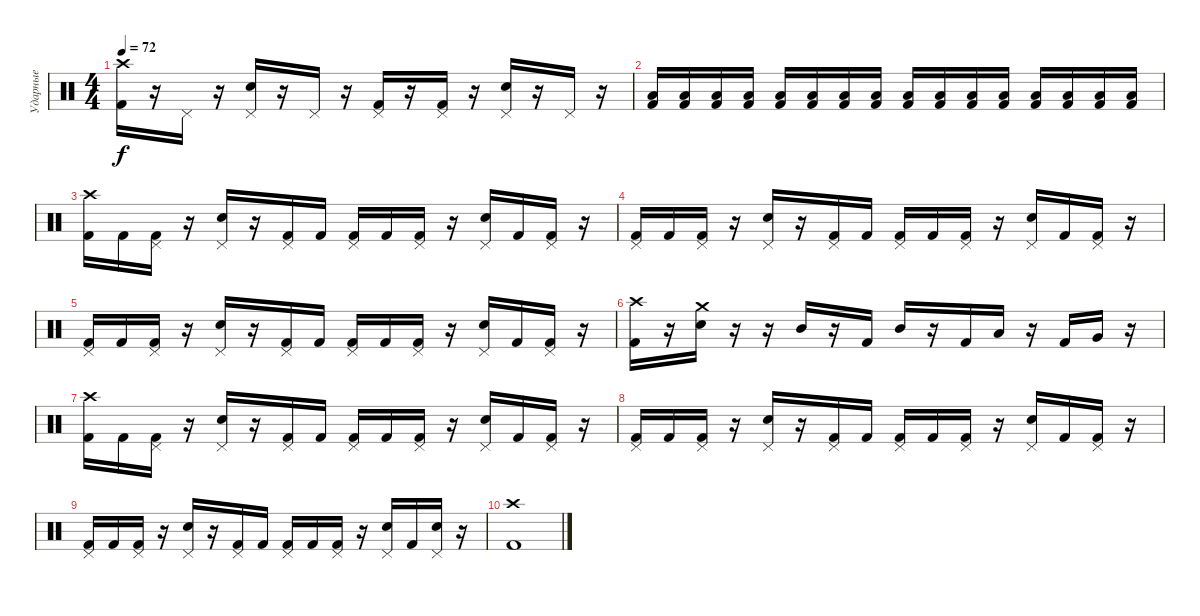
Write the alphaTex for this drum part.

\track ("Ударные" "Ударные") {instrument percussion}
\staff {score}
\articulation defaults
\ts (4 4)
\tempo 72
\clef neutral
\ks c
("Crash high (hit)" "Kick (hit) 2").16{dy f} r.16 "Pedal Hi-Hat (hit)".16 r.16 ("Pedal Hi-Hat (hit)" "Electric Snare (hit)").16 r.16 "Pedal Hi-Hat (hit)".16 r.16 ("Pedal Hi-Hat (hit)" "Kick (hit) 2").16 r.16 ("Pedal Hi-Hat (hit)" "Kick (hit) 2").16 r.16 ("Pedal Hi-Hat (hit)" "Electric Snare (hit)").16 r.16 "Pedal Hi-Hat (hit)".16 r.16 |
("Low Tom (hit)" "Kick (hit) 2").16{volume 2} ("Low Tom (hit)" "Kick (hit) 2").16{volume 13} ("Low Tom (hit)" "Kick (hit) 2").16 ("Low Tom (hit)" "Kick (hit) 2").16 ("Low Tom (hit)" "Kick (hit) 2").16 ("Low Tom (hit)" "Kick (hit) 2").16 ("Low Tom (hit)" "Kick (hit) 2").16 ("Low Tom (hit)" "Kick (hit) 2").16 ("Low Tom (hit)" "Kick (hit) 2").16 ("Low Tom (hit)" "Kick (hit) 2").16 ("Low Tom (hit)" "Kick (hit) 2").16 ("Low Tom (hit)" "Kick (hit) 2").16 ("Low Tom (hit)" "Kick (hit) 2").16 ("Low Tom (hit)" "Kick (hit) 2").16 ("Low Tom (hit)" "Kick (hit) 2").16 ("Low Tom (hit)" "Kick (hit) 2").16 |
("Crash high (hit)" "Kick (hit) 2").16 "Kick (hit) 2".16 ("Pedal Hi-Hat (hit)" "Kick (hit) 2").16 r.16 ("Pedal Hi-Hat (hit)" "Electric Snare (hit)").16 r.16 ("Pedal Hi-Hat (hit)" "Kick (hit) 2").16 "Kick (hit) 2".16 ("Pedal Hi-Hat (hit)" "Kick (hit) 2").16 "Kick (hit) 2".16 ("Pedal Hi-Hat (hit)" "Kick (hit) 2").16 r.16 ("Pedal Hi-Hat (hit)" "Electric Snare (hit)").16 "Kick (hit) 2".16 ("Pedal Hi-Hat (hit)" "Kick (hit) 2").16 r.16 |
("Pedal Hi-Hat (hit)" "Kick (hit) 2").16 "Kick (hit) 2".16 ("Pedal Hi-Hat (hit)" "Kick (hit) 2").16 r.16 ("Pedal Hi-Hat (hit)" "Electric Snare (hit)").16 r.16 ("Pedal Hi-Hat (hit)" "Kick (hit) 2").16 "Kick (hit) 2".16 ("Pedal Hi-Hat (hit)" "Kick (hit) 2").16 "Kick (hit) 2".16 ("Pedal Hi-Hat (hit)" "Kick (hit) 2").16 r.16 ("Pedal Hi-Hat (hit)" "Electric Snare (hit)").16 "Kick (hit) 2".16 ("Pedal Hi-Hat (hit)" "Kick (hit) 2").16 r.16 |
("Pedal Hi-Hat (hit)" "Kick (hit) 2").16 "Kick (hit) 2".16 ("Pedal Hi-Hat (hit)" "Kick (hit) 2").16 r.16 ("Pedal Hi-Hat (hit)" "Electric Snare (hit)").16 r.16 ("Pedal Hi-Hat (hit)" "Kick (hit) 2").16 "Kick (hit) 2".16 ("Pedal Hi-Hat (hit)" "Kick (hit) 2").16 "Kick (hit) 2".16 ("Pedal Hi-Hat (hit)" "Kick (hit) 2").16 r.16 ("Pedal Hi-Hat (hit)" "Electric Snare (hit)").16 "Kick (hit) 2".16 ("Pedal Hi-Hat (hit)" "Kick (hit) 2").16 r.16 |
("Crash high (hit)" "Kick (hit) 2").16 r.16 ("Crash medium (hit)" "Electric Snare (hit)").16 r.16 r.16 "Mid Tom (hit)".16 r.16 "Kick (hit) 2".16 "Mid Tom (hit)".16 r.16 "Kick (hit) 2".16 "Low Tom (hit)".16 r.16 "Kick (hit) 2".16 "Very Low Tom (hit)".16 r.16 |
("Crash high (hit)" "Kick (hit) 2").16 "Kick (hit) 2".16 ("Pedal Hi-Hat (hit)" "Kick (hit) 2").16 r.16 ("Pedal Hi-Hat (hit)" "Electric Snare (hit)").16 r.16 ("Pedal Hi-Hat (hit)" "Kick (hit) 2").16 "Kick (hit) 2".16 ("Pedal Hi-Hat (hit)" "Kick (hit) 2").16 "Kick (hit) 2".16 ("Pedal Hi-Hat (hit)" "Kick (hit) 2").16 r.16 ("Pedal Hi-Hat (hit)" "Electric Snare (hit)").16 "Kick (hit) 2".16 ("Pedal Hi-Hat (hit)" "Kick (hit) 2").16 r.16 |
("Pedal Hi-Hat (hit)" "Kick (hit) 2").16 "Kick (hit) 2".16 ("Pedal Hi-Hat (hit)" "Kick (hit) 2").16 r.16 ("Pedal Hi-Hat (hit)" "Electric Snare (hit)").16 r.16 ("Pedal Hi-Hat (hit)" "Kick (hit) 2").16 "Kick (hit) 2".16 ("Pedal Hi-Hat (hit)" "Kick (hit) 2").16 "Kick (hit) 2".16 ("Pedal Hi-Hat (hit)" "Kick (hit) 2").16 r.16 ("Pedal Hi-Hat (hit)" "Electric Snare (hit)").16 "Kick (hit) 2".16 ("Pedal Hi-Hat (hit)" "Kick (hit) 2").16 r.16 |
("Pedal Hi-Hat (hit)" "Kick (hit) 2").16 "Kick (hit) 2".16 ("Pedal Hi-Hat (hit)" "Kick (hit) 2").16 r.16 ("Pedal Hi-Hat (hit)" "Electric Snare (hit)").16 r.16 ("Pedal Hi-Hat (hit)" "Kick (hit) 2").16 "Kick (hit) 2".16 ("Pedal Hi-Hat (hit)" "Kick (hit) 2").16 "Kick (hit) 2".16 ("Pedal Hi-Hat (hit)" "Kick (hit) 2").16 r.16 ("Pedal Hi-Hat (hit)" "Electric Snare (hit)").16 "Kick (hit) 2".16 ("Pedal Hi-Hat (hit)" "Electric Snare (hit)").16 r.16 |
("Crash high (hit)" "Kick (hit) 2").1
